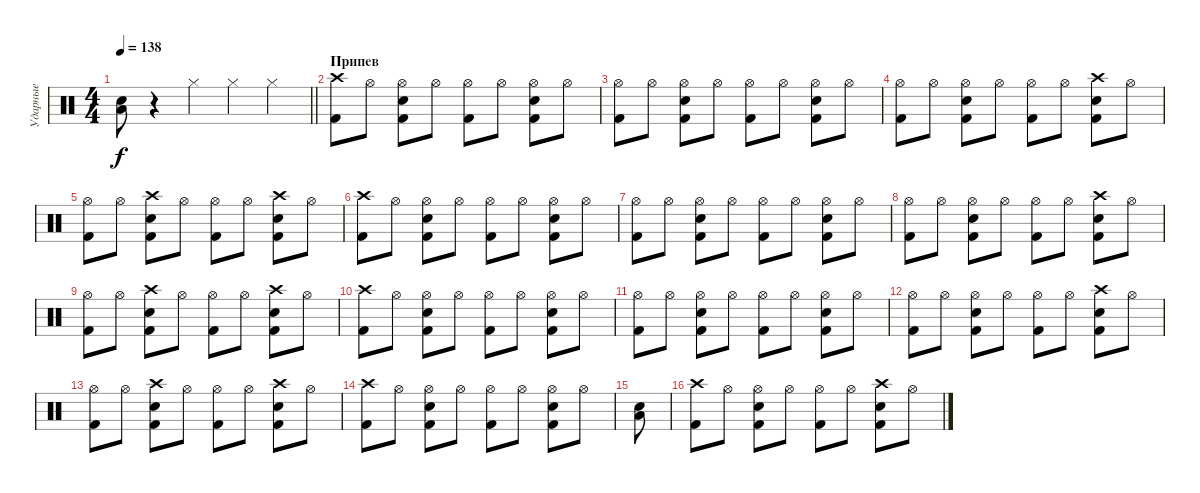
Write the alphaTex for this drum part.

\track ("Ударные" "Ударные") {instrument percussion}
\staff {score}
\articulation defaults
\ts (4 4)
\tempo 138
\clef neutral
\barLineRight lightlight
\ks c
("Electric Snare (hit)" "Low Tom (hit)").8{dy f} r.4 "Hi-Hat (closed)".4 "Hi-Hat (closed)".4 "Hi-Hat (closed)".4 |
\section ("" "Припев")
("Crash high (hit)" "Kick (hit) 2").8 "Hi-Hat (open)".8 ("Hi-Hat (open)" "Electric Snare (hit)" "Kick (hit) 2").8 "Hi-Hat (open)".8 ("Hi-Hat (open)" "Kick (hit) 2").8 "Hi-Hat (open)".8 ("Hi-Hat (open)" "Electric Snare (hit)" "Kick (hit) 2").8 "Hi-Hat (open)".8 |
("Hi-Hat (open)" "Kick (hit) 2").8 "Hi-Hat (open)".8 ("Hi-Hat (open)" "Electric Snare (hit)" "Kick (hit) 2").8 "Hi-Hat (open)".8 ("Hi-Hat (open)" "Kick (hit) 2").8 "Hi-Hat (open)".8 ("Hi-Hat (open)" "Electric Snare (hit)" "Kick (hit) 2").8 "Hi-Hat (open)".8 |
("Hi-Hat (open)" "Kick (hit) 2").8 "Hi-Hat (open)".8 ("Hi-Hat (open)" "Electric Snare (hit)" "Kick (hit) 2").8 "Hi-Hat (open)".8 ("Hi-Hat (open)" "Kick (hit) 2").8 "Hi-Hat (open)".8 ("Crash high (hit)" "Electric Snare (hit)" "Kick (hit) 2").8 "Hi-Hat (open)".8 |
("Hi-Hat (open)" "Kick (hit) 2").8 "Hi-Hat (open)".8 ("Crash high (hit)" "Electric Snare (hit)" "Kick (hit) 2").8 "Hi-Hat (open)".8 ("Hi-Hat (open)" "Kick (hit) 2").8 "Hi-Hat (open)".8 ("Crash high (hit)" "Electric Snare (hit)" "Kick (hit) 2").8 "Hi-Hat (open)".8 |
("Crash high (hit)" "Kick (hit) 2").8 "Hi-Hat (open)".8 ("Hi-Hat (open)" "Electric Snare (hit)" "Kick (hit) 2").8 "Hi-Hat (open)".8 ("Hi-Hat (open)" "Kick (hit) 2").8 "Hi-Hat (open)".8 ("Hi-Hat (open)" "Electric Snare (hit)" "Kick (hit) 2").8 "Hi-Hat (open)".8 |
("Hi-Hat (open)" "Kick (hit) 2").8 "Hi-Hat (open)".8 ("Hi-Hat (open)" "Electric Snare (hit)" "Kick (hit) 2").8 "Hi-Hat (open)".8 ("Hi-Hat (open)" "Kick (hit) 2").8 "Hi-Hat (open)".8 ("Hi-Hat (open)" "Electric Snare (hit)" "Kick (hit) 2").8 "Hi-Hat (open)".8 |
("Hi-Hat (open)" "Kick (hit) 2").8 "Hi-Hat (open)".8 ("Hi-Hat (open)" "Electric Snare (hit)" "Kick (hit) 2").8 "Hi-Hat (open)".8 ("Hi-Hat (open)" "Kick (hit) 2").8 "Hi-Hat (open)".8 ("Crash high (hit)" "Electric Snare (hit)" "Kick (hit) 2").8 "Hi-Hat (open)".8 |
("Hi-Hat (open)" "Kick (hit) 2").8 "Hi-Hat (open)".8 ("Crash high (hit)" "Electric Snare (hit)" "Kick (hit) 2").8 "Hi-Hat (open)".8 ("Hi-Hat (open)" "Kick (hit) 2").8 "Hi-Hat (open)".8 ("Crash high (hit)" "Electric Snare (hit)" "Kick (hit) 2").8 "Hi-Hat (open)".8 |
("Crash high (hit)" "Kick (hit) 2").8 "Hi-Hat (open)".8 ("Hi-Hat (open)" "Electric Snare (hit)" "Kick (hit) 2").8 "Hi-Hat (open)".8 ("Hi-Hat (open)" "Kick (hit) 2").8 "Hi-Hat (open)".8 ("Hi-Hat (open)" "Electric Snare (hit)" "Kick (hit) 2").8 "Hi-Hat (open)".8 |
("Hi-Hat (open)" "Kick (hit) 2").8 "Hi-Hat (open)".8 ("Hi-Hat (open)" "Electric Snare (hit)" "Kick (hit) 2").8 "Hi-Hat (open)".8 ("Hi-Hat (open)" "Kick (hit) 2").8 "Hi-Hat (open)".8 ("Hi-Hat (open)" "Electric Snare (hit)" "Kick (hit) 2").8 "Hi-Hat (open)".8 |
("Hi-Hat (open)" "Kick (hit) 2").8 "Hi-Hat (open)".8 ("Hi-Hat (open)" "Electric Snare (hit)" "Kick (hit) 2").8 "Hi-Hat (open)".8 ("Hi-Hat (open)" "Kick (hit) 2").8 "Hi-Hat (open)".8 ("Crash high (hit)" "Electric Snare (hit)" "Kick (hit) 2").8 "Hi-Hat (open)".8 |
("Hi-Hat (open)" "Kick (hit) 2").8 "Hi-Hat (open)".8 ("Crash high (hit)" "Electric Snare (hit)" "Kick (hit) 2").8 "Hi-Hat (open)".8 ("Hi-Hat (open)" "Kick (hit) 2").8 "Hi-Hat (open)".8 ("Crash high (hit)" "Electric Snare (hit)" "Kick (hit) 2").8 "Hi-Hat (open)".8 |
("Crash high (hit)" "Kick (hit) 2").8 "Hi-Hat (open)".8 ("Hi-Hat (open)" "Electric Snare (hit)" "Kick (hit) 2").8 "Hi-Hat (open)".8 ("Hi-Hat (open)" "Kick (hit) 2").8 "Hi-Hat (open)".8 ("Hi-Hat (open)" "Electric Snare (hit)" "Kick (hit) 2").8 "Hi-Hat (open)".8 |
("Electric Snare (hit)" "Low Tom (hit)").8 |
("Crash high (hit)" "Kick (hit) 2").8 "Hi-Hat (open)".8 ("Hi-Hat (open)" "Electric Snare (hit)" "Kick (hit) 2").8 "Hi-Hat (open)".8 ("Hi-Hat (open)" "Kick (hit) 2").8 "Hi-Hat (open)".8 ("Crash high (hit)" "Electric Snare (hit)" "Kick (hit) 2").8 "Hi-Hat (open)".8
